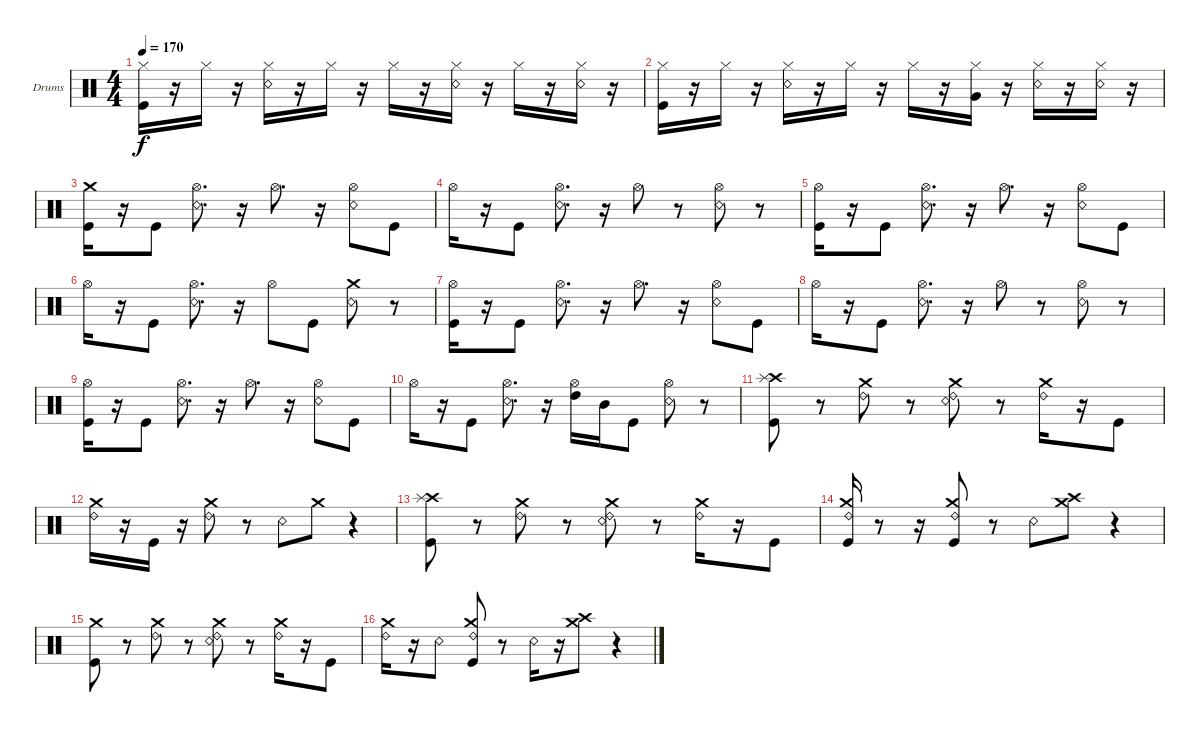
\bracketExtendMode groupsimilarinstruments
\firstSystemTrackNameOrientation horizontal
\otherSystemsTrackNameOrientation horizontal
\track ("Drumkit" "Drums") {instrument percussion}
\staff {score}
\articulation defaults
\ts (4 4)
\tempo 170
\clef neutral
\ks c
("Kick (hit)" "Hi-Hat (closed)").16{dy f} r.16 "Hi-Hat (closed)".16 r.16 ("Snare (rim shot)" "Hi-Hat (closed)").16 r.16 "Hi-Hat (closed)".16 r.16 "Hi-Hat (closed)".16 r.16 ("Snare (rim shot)" "Hi-Hat (closed)").16 r.16 "Hi-Hat (closed)".16 r.16 ("Snare (rim shot)" "Hi-Hat (closed)").16 r.16 |
("Kick (hit)" "Hi-Hat (closed)").16 r.16 "Hi-Hat (closed)".16 r.16 ("Snare (rim shot)" "Hi-Hat (closed)").16 r.16 "Hi-Hat (closed)".16 r.16 "Hi-Hat (closed)".16 r.16 ("Very Low Tom (hit)" "Hi-Hat (closed)").16 r.16 ("Snare (rim shot)" "Hi-Hat (closed)").16 r.16 ("Snare (rim shot)" "Hi-Hat (closed)").16 r.16 |
("Kick (hit)" "Crash medium (hit)").16 r.16 "Kick (hit)".8 ("Snare (rim shot)" "Hi-Hat (open)").8{d} r.16 "Hi-Hat (open)".8{d} r.16 ("Snare (rim shot)" "Hi-Hat (open)").8 "Kick (hit)".8 |
"Hi-Hat (open)".16 r.16 "Kick (hit)".8 ("Snare (rim shot)" "Hi-Hat (open)").8{d} r.16 "Hi-Hat (open)".8 r.8 ("Snare (rim shot)" "Hi-Hat (open)").8 r.8 |
("Kick (hit)" "Hi-Hat (open)").16 r.16 "Kick (hit)".8 ("Snare (rim shot)" "Hi-Hat (open)").8{d} r.16 "Hi-Hat (open)".8{d} r.16 ("Snare (rim shot)" "Hi-Hat (open)").8 "Kick (hit)".8 |
"Hi-Hat (open)".16 r.16 "Kick (hit)".8 ("Snare (rim shot)" "Hi-Hat (open)").8{d} r.16 "Hi-Hat (open)".8 "Kick (hit)".8 ("Snare (rim shot)" "Crash medium (hit)").8 r.8 |
("Kick (hit)" "Hi-Hat (open)").16 r.16 "Kick (hit)".8 ("Snare (rim shot)" "Hi-Hat (open)").8{d} r.16 "Hi-Hat (open)".8{d} r.16 ("Snare (rim shot)" "Hi-Hat (open)").8 "Kick (hit)".8 |
"Hi-Hat (open)".16 r.16 "Kick (hit)".8 ("Snare (rim shot)" "Hi-Hat (open)").8{d} r.16 "Hi-Hat (open)".8 r.8 ("Snare (rim shot)" "Hi-Hat (open)").8 r.8 |
("Kick (hit)" "Hi-Hat (open)").16 r.16 "Kick (hit)".8 ("Snare (rim shot)" "Hi-Hat (open)").8{d} r.16 "Hi-Hat (open)".8{d} r.16 ("Snare (rim shot)" "Hi-Hat (open)").8 "Kick (hit)".8 |
"Hi-Hat (open)".16 r.16 "Kick (hit)".8 ("Snare (rim shot)" "Hi-Hat (open)").8{d} r.16 ("Hi-Hat (open)" "High Tom (hit)").16 "Mid Tom (hit)".16 "Kick (hit)".8 ("Snare (rim shot)" "Hi-Hat (open)").8 r.8 |
("Kick (hit)" "Crash high (hit)" "Splash (hit)").8 r.8 ("Ride (bell) 2" "Crash medium (hit)").8 r.8 ("Snare (rim shot)" "Ride (bell) 2" "Crash medium (hit)").8 r.8 ("Ride (bell) 2" "Crash medium (hit)").16 r.16 "Kick (hit)".8 |
("Ride (bell) 2" "Crash medium (hit)").16 r.16 "Kick (hit)".16 r.16 ("Ride (bell) 2" "Crash medium (hit)").8 r.8 "Snare (rim shot)".8 "Crash medium (hit)".8 r.4 |
("Kick (hit)" "Crash high (hit)" "Splash (hit)").8 r.8 ("Ride (bell) 2" "Crash medium (hit)").8 r.8 ("Snare (rim shot)" "Ride (bell) 2" "Crash medium (hit)").8 r.8 ("Ride (bell) 2" "Crash medium (hit)").16 r.16 "Kick (hit)".8 |
("Kick (hit)" "Ride (bell) 2" "Crash medium (hit)").16 r.8 r.16 ("Kick (hit)" "Ride (bell) 2" "Crash medium (hit)").8 r.8 "Snare (rim shot)".8 ("Crash high (hit)" "Crash medium (hit)").8 r.4 |
("Kick (hit)" "Crash medium (hit)").8 r.8 ("Ride (bell) 2" "Crash medium (hit)").8 r.8 ("Snare (rim shot)" "Ride (bell) 2" "Crash medium (hit)").8 r.8 ("Ride (bell) 2" "Crash medium (hit)").16 r.16 "Kick (hit)".8 |
("Ride (bell) 2" "Crash medium (hit)").16 r.16 "Snare (rim shot)".8 ("Kick (hit)" "Ride (bell) 2" "Crash medium (hit)").8 r.8 "Snare (rim shot)".16 r.16 ("Crash high (hit)" "Crash medium (hit)").8 r.4
